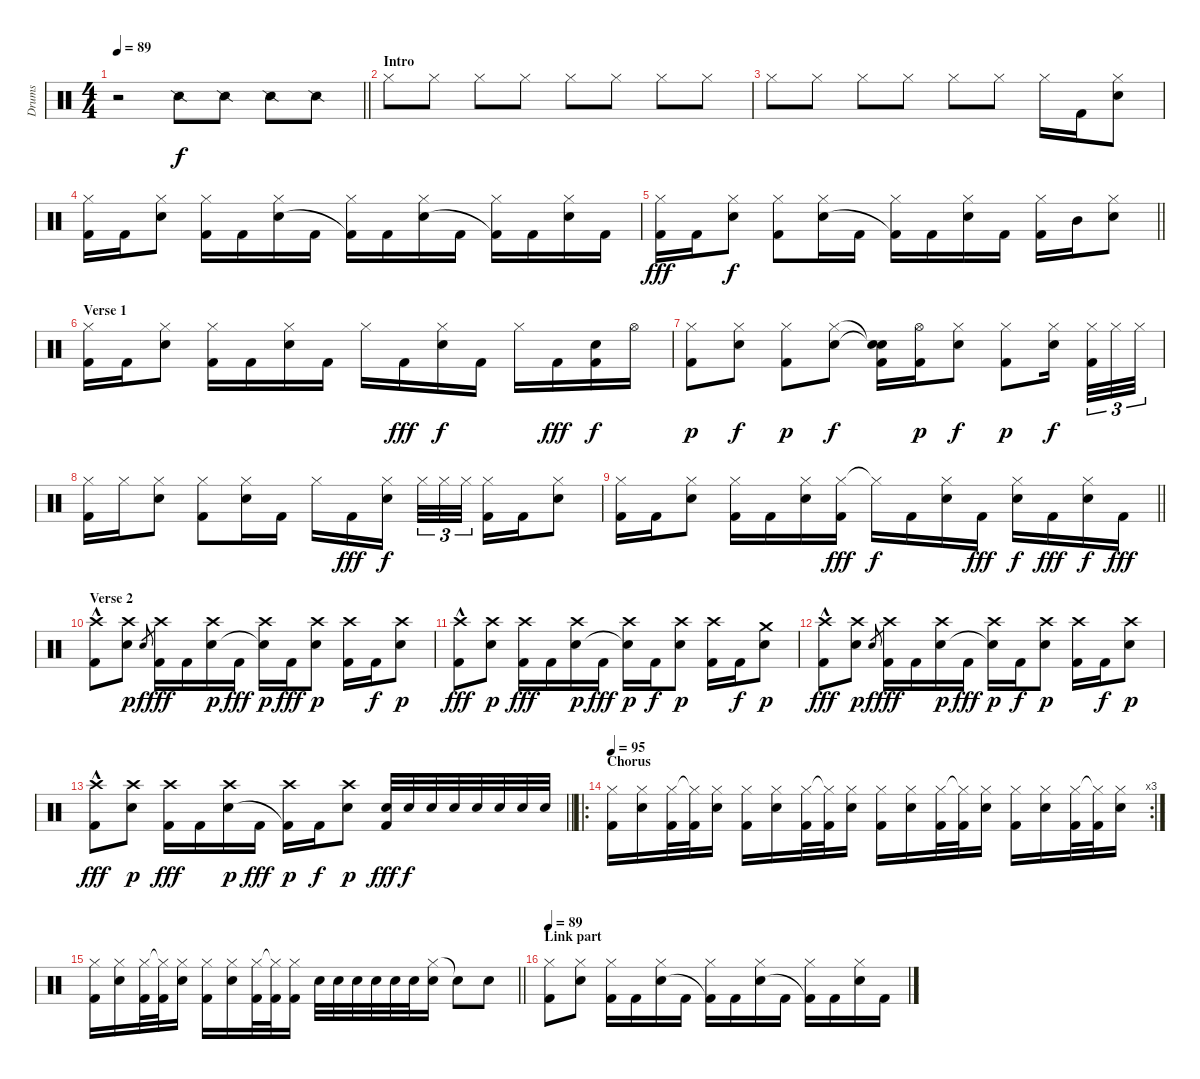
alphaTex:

\track ("Drums" "Drums") {instrument percussion}
\staff {score}
\articulation defaults
\ts (4 4)
\tempo 89
\clef neutral
\barLineRight lightlight
\ks c
r.2{dy f} "Snare (side stick) 2".8 "Snare (side stick) 2".8 "Snare (side stick) 2".8 "Snare (side stick) 2".8 |
\section ("" "Intro")
"Hi-Hat (closed)".8 "Hi-Hat (closed)".8 "Hi-Hat (closed)".8 "Hi-Hat (closed)".8 "Hi-Hat (closed)".8 "Hi-Hat (closed)".8 "Hi-Hat (closed)".8 "Hi-Hat (closed)".8 |
"Hi-Hat (closed)".8 "Hi-Hat (closed)".8 "Hi-Hat (closed)".8 "Hi-Hat (closed)".8 "Hi-Hat (closed)".8 "Hi-Hat (closed)".8 "Hi-Hat (closed)".16 "Kick (hit) 2".16 ("Hi-Hat (closed)" "Snare (hit) 2").8 |
("Hi-Hat (closed)" "Kick (hit) 2").16 "Kick (hit) 2".16 ("Hi-Hat (closed)" "Snare (hit) 2").8 ("Hi-Hat (closed)" "Kick (hit) 2").16 "Kick (hit) 2".16 ("Hi-Hat (closed)" "Snare (hit) 2").16 "Kick (hit) 2".16 ("Hi-Hat (closed)" "Kick (hit) 2"{t}).16 "Kick (hit) 2".16 ("Hi-Hat (closed)" "Snare (hit) 2").16 "Kick (hit) 2".16 ("Hi-Hat (closed)" "Kick (hit) 2"{t}).16 "Kick (hit) 2".16 ("Hi-Hat (closed)" "Snare (hit) 2").16 "Kick (hit) 2".16 |
\barLineRight lightlight
("Hi-Hat (closed)" "Kick (hit) 2").16{dy fff} "Kick (hit) 2".16 ("Hi-Hat (closed)" "Snare (hit) 2").8{dy f} ("Hi-Hat (closed)" "Kick (hit) 2").8 ("Hi-Hat (closed)" "Snare (hit) 2").16 "Kick (hit) 2".16 ("Hi-Hat (closed)" "Kick (hit) 2"{t}).16 "Kick (hit) 2".16 ("Hi-Hat (closed)" "Snare (hit) 2").16 "Kick (hit) 2".16 ("Hi-Hat (closed)" "Kick (hit) 2").16 "Mid Tom (hit)".16 ("Hi-Hat (closed)" "Snare (hit) 2").8 |
\section ("" "Verse 1")
("Hi-Hat (closed)" "Kick (hit) 2").16 "Kick (hit) 2".16 ("Hi-Hat (closed)" "Snare (hit) 2").8 ("Hi-Hat (closed)" "Kick (hit) 2").16 "Kick (hit) 2".16 ("Hi-Hat (closed)" "Snare (hit) 2").16 "Kick (hit) 2".16 "Hi-Hat (closed)".16 "Kick (hit) 2".16{dy fff} ("Hi-Hat (closed)" "Snare (hit) 2").16{dy f} "Kick (hit) 2".16 "Hi-Hat (closed)".16 "Kick (hit) 2".16{dy fff} ("Snare (hit) 2" "Kick (hit) 2").16{dy f} "Hi-Hat (open)".16 |
("Hi-Hat (closed)" "Kick (hit) 2").8{dy p} ("Hi-Hat (closed)" "Snare (hit) 2").8{dy f} ("Hi-Hat (closed)" "Kick (hit) 2").8{dy p} ("Hi-Hat (closed)" "Snare (hit) 2").8{dy f} ("Snare (hit)"{t} "Snare (hit)"{t} "Kick (hit) 2").16 ("Hi-Hat (open)" "Kick (hit) 2").16{dy p} ("Hi-Hat (closed)" "Snare (hit) 2").8{dy f} ("Hi-Hat (closed)" "Kick (hit) 2").8{dy p} ("Hi-Hat (closed)" "Snare (hit) 2").16{dy f beam splitsecondary} ("Hi-Hat (closed)" "Kick (hit) 2").32{tu (3 2)} "Hi-Hat (closed)".32{tu (3 2)} "Hi-Hat (closed)".32{tu (3 2)} |
("Hi-Hat (closed)" "Kick (hit) 2").16 "Hi-Hat (closed)".16 ("Hi-Hat (closed)" "Snare (hit) 2").8 ("Hi-Hat (closed)" "Kick (hit) 2").8 ("Hi-Hat (closed)" "Snare (hit) 2").16 "Kick (hit) 2".16 "Hi-Hat (closed)".16 "Kick (hit) 2".16{dy fff} ("Hi-Hat (closed)" "Snare (hit) 2").16{dy f beam splitsecondary} "Hi-Hat (closed)".32{tu (3 2)} "Hi-Hat (closed)".32{tu (3 2)} "Hi-Hat (closed)".32{tu (3 2)} ("Hi-Hat (closed)" "Kick (hit) 2").16 "Kick (hit) 2".16 ("Hi-Hat (closed)" "Snare (hit) 2").8 |
\barLineRight lightlight
("Hi-Hat (closed)" "Kick (hit) 2").16 "Kick (hit) 2".16 ("Hi-Hat (closed)" "Snare (hit) 2").8 ("Hi-Hat (closed)" "Kick (hit) 2").16 "Kick (hit) 2".16 ("Hi-Hat (closed)" "Snare (hit) 2").16 ("Hi-Hat (closed)" "Kick (hit) 2").16{dy fff} "Hi-Hat (closed)"{t}.16{dy f} "Kick (hit) 2".16 ("Hi-Hat (closed)" "Snare (hit) 2").16 "Kick (hit) 2".16{dy fff} ("Hi-Hat (closed)" "Snare (hit) 2").16{dy f} "Kick (hit) 2".16{dy fff} ("Hi-Hat (closed)" "Snare (hit) 2").16{dy f} "Kick (hit) 2".16{dy fff} |
\section ("" "Verse 2")
("Crash high (hit)"{hac} "Kick (hit) 2").8 ("Crash high (hit)" "Snare (hit) 2").8{dy p} "Snare (hit) 2".8{gr dy f} ("Crash high (hit)" "Kick (hit) 2").16{dy fff} "Kick (hit) 2".16 ("Crash high (hit)" "Snare (hit) 2").16{dy p} "Kick (hit) 2".16{dy fff} ("Crash high (hit)" "Snare (hit)"{t}).16{dy p} "Kick (hit) 2".16{dy fff} ("Crash high (hit)" "Snare (hit) 2").8{dy p} ("Crash high (hit)" "Kick (hit) 2").16 "Kick (hit) 2".16{dy f} ("Crash high (hit)" "Snare (hit) 2").8{dy p} |
("Crash high (hit)"{hac} "Kick (hit) 2").8{dy fff} ("Crash high (hit)" "Snare (hit) 2").8{dy p} ("Crash high (hit)" "Kick (hit) 2").16{dy fff} "Kick (hit) 2".16 ("Crash high (hit)" "Snare (hit) 2").16{dy p} "Kick (hit) 2".16{dy fff} ("Crash high (hit)" "Snare (hit)"{t}).16{dy p} "Kick (hit) 2".16{dy f} ("Crash high (hit)" "Snare (hit) 2").8{dy p} ("Crash high (hit)" "Kick (hit) 2").16 "Kick (hit) 2".16{dy f} ("Crash medium (hit)" "Snare (hit) 2").8{dy p} |
("Crash high (hit)"{hac} "Kick (hit) 2").8{dy fff} ("Crash high (hit)" "Snare (hit) 2").8{dy p} "Snare (hit) 2".8{gr dy f} ("Crash high (hit)" "Kick (hit) 2").16{dy fff} "Kick (hit) 2".16 ("Crash high (hit)" "Snare (hit) 2").16{dy p} "Kick (hit) 2".16{dy fff} ("Crash high (hit)" "Snare (hit)"{t}).16{dy p} "Kick (hit) 2".16{dy f} ("Crash high (hit)" "Snare (hit) 2").8{dy p} ("Crash high (hit)" "Kick (hit) 2").16 "Kick (hit) 2".16{dy f} ("Crash high (hit)" "Snare (hit) 2").8{dy p} |
\barLineRight lightlight
("Crash high (hit)"{hac} "Kick (hit) 2").8{dy fff} ("Crash high (hit)" "Snare (hit) 2").8{dy p} ("Crash high (hit)" "Kick (hit) 2").16{dy fff} "Kick (hit) 2".16 ("Crash high (hit)" "Snare (hit) 2").16{dy p} "Kick (hit) 2".16{dy fff} ("Crash high (hit)" "Kick (hit) 2"{t}).16{dy p} "Kick (hit) 2".16{dy f} ("Crash high (hit)" "Snare (hit) 2").8{dy p} ("Snare (hit) 2" "Kick (hit) 2").32{dy fff} "Snare (hit) 2".32{dy f} "Snare (hit) 2".32 "Snare (hit) 2".32 "Snare (hit) 2".32 "Snare (hit) 2".32 "Snare (hit) 2".32 "Snare (hit) 2".32 |
\ro
\rc 3
\section ("" "Chorus")
\tempo 95
("Hi-Hat (closed)" "Kick (hit) 2").16 ("Hi-Hat (closed)" "Snare (hit) 2").16 ("Hi-Hat (closed)" "Kick (hit) 2").32 ("Hi-Hat (closed)"{t} "Kick (hit) 2").32 ("Hi-Hat (closed)" "Snare (hit) 2").16 ("Hi-Hat (closed)" "Kick (hit) 2").16 ("Hi-Hat (closed)" "Snare (hit) 2").16 ("Hi-Hat (closed)" "Kick (hit) 2").32 ("Hi-Hat (closed)"{t} "Kick (hit) 2").32 ("Hi-Hat (closed)" "Snare (hit) 2").16 ("Hi-Hat (closed)" "Kick (hit) 2").16 ("Hi-Hat (closed)" "Snare (hit) 2").16 ("Hi-Hat (closed)" "Kick (hit) 2").32 ("Hi-Hat (closed)"{t} "Kick (hit) 2").32 ("Hi-Hat (closed)" "Snare (hit) 2").16 ("Hi-Hat (closed)" "Kick (hit) 2").16 ("Hi-Hat (closed)" "Snare (hit) 2").16 ("Hi-Hat (closed)" "Kick (hit) 2").32 ("Hi-Hat (closed)"{t} "Kick (hit) 2").32 ("Hi-Hat (closed)" "Snare (hit) 2").16 |
\barLineRight lightlight
("Hi-Hat (closed)" "Kick (hit) 2").16 ("Hi-Hat (closed)" "Snare (hit) 2").16 ("Hi-Hat (closed)" "Kick (hit) 2").32 ("Hi-Hat (closed)"{t} "Kick (hit) 2").32 ("Hi-Hat (closed)" "Snare (hit) 2").16 ("Hi-Hat (closed)" "Kick (hit) 2").16 ("Hi-Hat (closed)" "Snare (hit) 2").16 ("Hi-Hat (closed)" "Kick (hit) 2").32 ("Hi-Hat (closed)"{t} "Kick (hit) 2").32 ("Hi-Hat (closed)" "Kick (hit) 2").16 "Snare (hit) 2".32 "Snare (hit) 2".32 "Snare (hit) 2".32 "Snare (hit) 2".32 "Snare (hit) 2".32 "Snare (hit) 2".32 ("Hi-Hat (closed)" "Snare (hit) 2").16 "Snare (hit)"{t}.8 "Snare (hit) 2".8 |
\section ("" "Link part")
\tempo 89
("Hi-Hat (closed)" "Kick (hit) 2").8 ("Hi-Hat (closed)" "Snare (hit) 2").8 ("Hi-Hat (closed)" "Kick (hit) 2").16 "Kick (hit) 2".16 ("Hi-Hat (closed)" "Snare (hit) 2").16 "Kick (hit) 2".16 ("Hi-Hat (closed)" "Kick (hit) 2"{t}).16 "Kick (hit) 2".16 ("Hi-Hat (closed)" "Snare (hit) 2").16 "Kick (hit) 2".16 ("Hi-Hat (closed)" "Kick (hit) 2"{t}).16 "Kick (hit) 2".16 ("Hi-Hat (closed)" "Snare (hit) 2").16 "Kick (hit) 2".16
